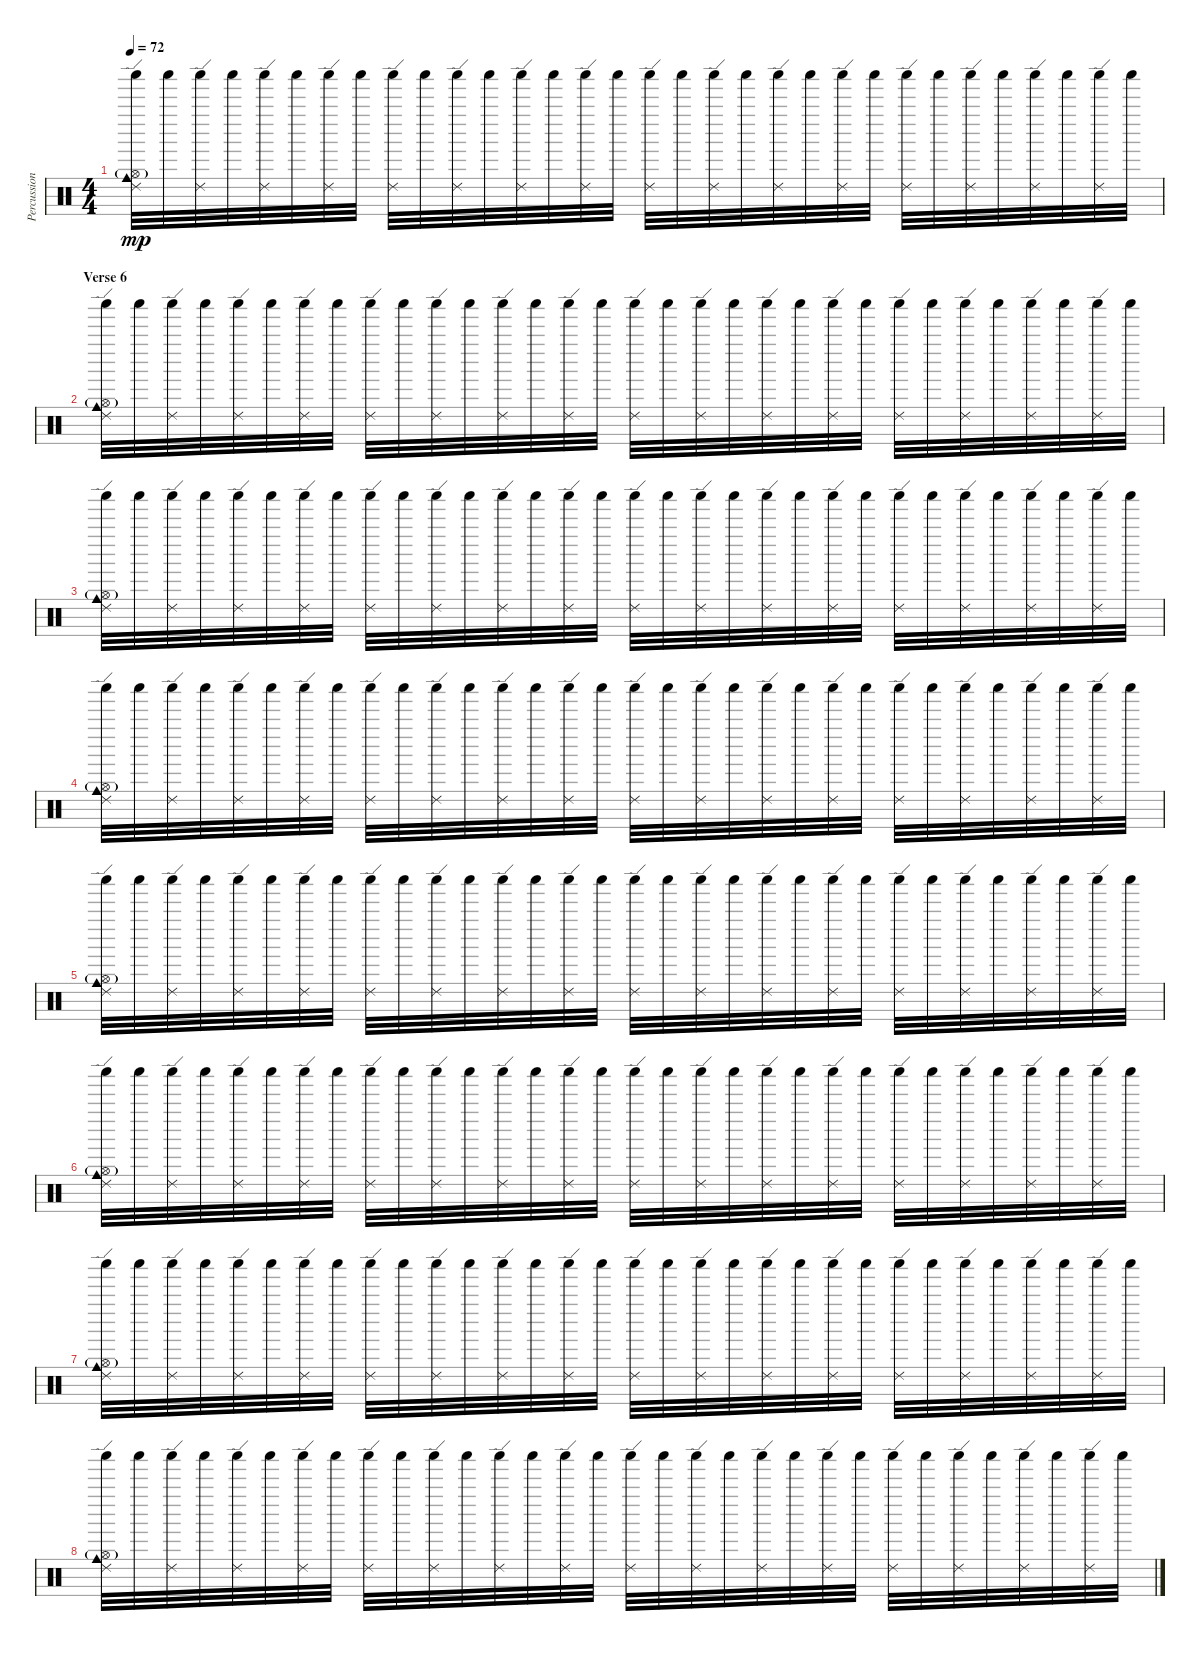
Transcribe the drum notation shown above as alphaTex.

\track ("Percussion" "Percussion") {instrument percussion}
\staff {score}
\articulation defaults
\ts (4 4)
\tempo 72
\clef neutral
\ks c
("Ride (edge) 2" "Hi-Hat (open)"{g} "Cowbell medium (hit)" "Shaker (hit)").32{dy mp} "Shaker (hit)".32 ("Ride (edge) 2" "Shaker (hit)").32 "Shaker (hit)".32 ("Ride (edge) 2" "Shaker (hit)").32 "Shaker (hit)".32 ("Ride (edge) 2" "Shaker (hit)").32 "Shaker (hit)".32 ("Ride (edge) 2" "Shaker (hit)").32 "Shaker (hit)".32 ("Ride (edge) 2" "Shaker (hit)").32 "Shaker (hit)".32 ("Ride (edge) 2" "Shaker (hit)").32 "Shaker (hit)".32 ("Ride (edge) 2" "Shaker (hit)").32 "Shaker (hit)".32 ("Ride (edge) 2" "Shaker (hit)").32 "Shaker (hit)".32 ("Ride (edge) 2" "Shaker (hit)").32 "Shaker (hit)".32 ("Ride (edge) 2" "Shaker (hit)").32 "Shaker (hit)".32 ("Ride (edge) 2" "Shaker (hit)").32 "Shaker (hit)".32 ("Ride (edge) 2" "Shaker (hit)").32 "Shaker (hit)".32 ("Ride (edge) 2" "Shaker (hit)").32 "Shaker (hit)".32 ("Ride (edge) 2" "Shaker (hit)").32 "Shaker (hit)".32 ("Ride (edge) 2" "Shaker (hit)").32 "Shaker (hit)".32 |
\section ("" "Verse 6")
("Ride (edge) 2" "Hi-Hat (open)"{g} "Cowbell medium (hit)" "Shaker (hit)").32 "Shaker (hit)".32 ("Ride (edge) 2" "Shaker (hit)").32 "Shaker (hit)".32 ("Ride (edge) 2" "Shaker (hit)").32 "Shaker (hit)".32 ("Ride (edge) 2" "Shaker (hit)").32 "Shaker (hit)".32 ("Ride (edge) 2" "Shaker (hit)").32 "Shaker (hit)".32 ("Ride (edge) 2" "Shaker (hit)").32 "Shaker (hit)".32 ("Ride (edge) 2" "Shaker (hit)").32 "Shaker (hit)".32 ("Ride (edge) 2" "Shaker (hit)").32 "Shaker (hit)".32 ("Ride (edge) 2" "Shaker (hit)").32 "Shaker (hit)".32 ("Ride (edge) 2" "Shaker (hit)").32 "Shaker (hit)".32 ("Ride (edge) 2" "Shaker (hit)").32 "Shaker (hit)".32 ("Ride (edge) 2" "Shaker (hit)").32 "Shaker (hit)".32 ("Ride (edge) 2" "Shaker (hit)").32 "Shaker (hit)".32 ("Ride (edge) 2" "Shaker (hit)").32 "Shaker (hit)".32 ("Ride (edge) 2" "Shaker (hit)").32 "Shaker (hit)".32 ("Ride (edge) 2" "Shaker (hit)").32 "Shaker (hit)".32 |
("Ride (edge) 2" "Hi-Hat (open)"{g} "Cowbell medium (hit)" "Shaker (hit)").32 "Shaker (hit)".32 ("Ride (edge) 2" "Shaker (hit)").32 "Shaker (hit)".32 ("Ride (edge) 2" "Shaker (hit)").32 "Shaker (hit)".32 ("Ride (edge) 2" "Shaker (hit)").32 "Shaker (hit)".32 ("Ride (edge) 2" "Shaker (hit)").32 "Shaker (hit)".32 ("Ride (edge) 2" "Shaker (hit)").32 "Shaker (hit)".32 ("Ride (edge) 2" "Shaker (hit)").32 "Shaker (hit)".32 ("Ride (edge) 2" "Shaker (hit)").32 "Shaker (hit)".32 ("Ride (edge) 2" "Shaker (hit)").32 "Shaker (hit)".32 ("Ride (edge) 2" "Shaker (hit)").32 "Shaker (hit)".32 ("Ride (edge) 2" "Shaker (hit)").32 "Shaker (hit)".32 ("Ride (edge) 2" "Shaker (hit)").32 "Shaker (hit)".32 ("Ride (edge) 2" "Shaker (hit)").32 "Shaker (hit)".32 ("Ride (edge) 2" "Shaker (hit)").32 "Shaker (hit)".32 ("Ride (edge) 2" "Shaker (hit)").32 "Shaker (hit)".32 ("Ride (edge) 2" "Shaker (hit)").32 "Shaker (hit)".32 |
("Ride (edge) 2" "Hi-Hat (open)"{g} "Cowbell medium (hit)" "Shaker (hit)").32 "Shaker (hit)".32 ("Ride (edge) 2" "Shaker (hit)").32 "Shaker (hit)".32 ("Ride (edge) 2" "Shaker (hit)").32 "Shaker (hit)".32 ("Ride (edge) 2" "Shaker (hit)").32 "Shaker (hit)".32 ("Ride (edge) 2" "Shaker (hit)").32 "Shaker (hit)".32 ("Ride (edge) 2" "Shaker (hit)").32 "Shaker (hit)".32 ("Ride (edge) 2" "Shaker (hit)").32 "Shaker (hit)".32 ("Ride (edge) 2" "Shaker (hit)").32 "Shaker (hit)".32 ("Ride (edge) 2" "Shaker (hit)").32 "Shaker (hit)".32 ("Ride (edge) 2" "Shaker (hit)").32 "Shaker (hit)".32 ("Ride (edge) 2" "Shaker (hit)").32 "Shaker (hit)".32 ("Ride (edge) 2" "Shaker (hit)").32 "Shaker (hit)".32 ("Ride (edge) 2" "Shaker (hit)").32 "Shaker (hit)".32 ("Ride (edge) 2" "Shaker (hit)").32 "Shaker (hit)".32 ("Ride (edge) 2" "Shaker (hit)").32 "Shaker (hit)".32 ("Ride (edge) 2" "Shaker (hit)").32 "Shaker (hit)".32 |
("Ride (edge) 2" "Hi-Hat (open)"{g} "Cowbell medium (hit)" "Shaker (hit)").32 "Shaker (hit)".32 ("Ride (edge) 2" "Shaker (hit)").32 "Shaker (hit)".32 ("Ride (edge) 2" "Shaker (hit)").32 "Shaker (hit)".32 ("Ride (edge) 2" "Shaker (hit)").32 "Shaker (hit)".32 ("Ride (edge) 2" "Shaker (hit)").32 "Shaker (hit)".32 ("Ride (edge) 2" "Shaker (hit)").32 "Shaker (hit)".32 ("Ride (edge) 2" "Shaker (hit)").32 "Shaker (hit)".32 ("Ride (edge) 2" "Shaker (hit)").32 "Shaker (hit)".32 ("Ride (edge) 2" "Shaker (hit)").32 "Shaker (hit)".32 ("Ride (edge) 2" "Shaker (hit)").32 "Shaker (hit)".32 ("Ride (edge) 2" "Shaker (hit)").32 "Shaker (hit)".32 ("Ride (edge) 2" "Shaker (hit)").32 "Shaker (hit)".32 ("Ride (edge) 2" "Shaker (hit)").32 "Shaker (hit)".32 ("Ride (edge) 2" "Shaker (hit)").32 "Shaker (hit)".32 ("Ride (edge) 2" "Shaker (hit)").32 "Shaker (hit)".32 ("Ride (edge) 2" "Shaker (hit)").32 "Shaker (hit)".32 |
("Ride (edge) 2" "Hi-Hat (open)"{g} "Cowbell medium (hit)" "Shaker (hit)").32 "Shaker (hit)".32 ("Ride (edge) 2" "Shaker (hit)").32 "Shaker (hit)".32 ("Ride (edge) 2" "Shaker (hit)").32 "Shaker (hit)".32 ("Ride (edge) 2" "Shaker (hit)").32 "Shaker (hit)".32 ("Ride (edge) 2" "Shaker (hit)").32 "Shaker (hit)".32 ("Ride (edge) 2" "Shaker (hit)").32 "Shaker (hit)".32 ("Ride (edge) 2" "Shaker (hit)").32 "Shaker (hit)".32 ("Ride (edge) 2" "Shaker (hit)").32 "Shaker (hit)".32 ("Ride (edge) 2" "Shaker (hit)").32 "Shaker (hit)".32 ("Ride (edge) 2" "Shaker (hit)").32 "Shaker (hit)".32 ("Ride (edge) 2" "Shaker (hit)").32 "Shaker (hit)".32 ("Ride (edge) 2" "Shaker (hit)").32 "Shaker (hit)".32 ("Ride (edge) 2" "Shaker (hit)").32 "Shaker (hit)".32 ("Ride (edge) 2" "Shaker (hit)").32 "Shaker (hit)".32 ("Ride (edge) 2" "Shaker (hit)").32 "Shaker (hit)".32 ("Ride (edge) 2" "Shaker (hit)").32 "Shaker (hit)".32 |
("Ride (edge) 2" "Hi-Hat (open)"{g} "Cowbell medium (hit)" "Shaker (hit)").32 "Shaker (hit)".32 ("Ride (edge) 2" "Shaker (hit)").32 "Shaker (hit)".32 ("Ride (edge) 2" "Shaker (hit)").32 "Shaker (hit)".32 ("Ride (edge) 2" "Shaker (hit)").32 "Shaker (hit)".32 ("Ride (edge) 2" "Shaker (hit)").32 "Shaker (hit)".32 ("Ride (edge) 2" "Shaker (hit)").32 "Shaker (hit)".32 ("Ride (edge) 2" "Shaker (hit)").32 "Shaker (hit)".32 ("Ride (edge) 2" "Shaker (hit)").32 "Shaker (hit)".32 ("Ride (edge) 2" "Shaker (hit)").32 "Shaker (hit)".32 ("Ride (edge) 2" "Shaker (hit)").32 "Shaker (hit)".32 ("Ride (edge) 2" "Shaker (hit)").32 "Shaker (hit)".32 ("Ride (edge) 2" "Shaker (hit)").32 "Shaker (hit)".32 ("Ride (edge) 2" "Shaker (hit)").32 "Shaker (hit)".32 ("Ride (edge) 2" "Shaker (hit)").32 "Shaker (hit)".32 ("Ride (edge) 2" "Shaker (hit)").32 "Shaker (hit)".32 ("Ride (edge) 2" "Shaker (hit)").32 "Shaker (hit)".32 |
("Ride (edge) 2" "Hi-Hat (open)"{g} "Cowbell medium (hit)" "Shaker (hit)").32 "Shaker (hit)".32 ("Ride (edge) 2" "Shaker (hit)").32 "Shaker (hit)".32 ("Ride (edge) 2" "Shaker (hit)").32 "Shaker (hit)".32 ("Ride (edge) 2" "Shaker (hit)").32 "Shaker (hit)".32 ("Ride (edge) 2" "Shaker (hit)").32 "Shaker (hit)".32 ("Ride (edge) 2" "Shaker (hit)").32 "Shaker (hit)".32 ("Ride (edge) 2" "Shaker (hit)").32 "Shaker (hit)".32 ("Ride (edge) 2" "Shaker (hit)").32 "Shaker (hit)".32 ("Ride (edge) 2" "Shaker (hit)").32 "Shaker (hit)".32 ("Ride (edge) 2" "Shaker (hit)").32 "Shaker (hit)".32 ("Ride (edge) 2" "Shaker (hit)").32 "Shaker (hit)".32 ("Ride (edge) 2" "Shaker (hit)").32 "Shaker (hit)".32 ("Ride (edge) 2" "Shaker (hit)").32 "Shaker (hit)".32 ("Ride (edge) 2" "Shaker (hit)").32 "Shaker (hit)".32 ("Ride (edge) 2" "Shaker (hit)").32 "Shaker (hit)".32 ("Ride (edge) 2" "Shaker (hit)").32 "Shaker (hit)".32
